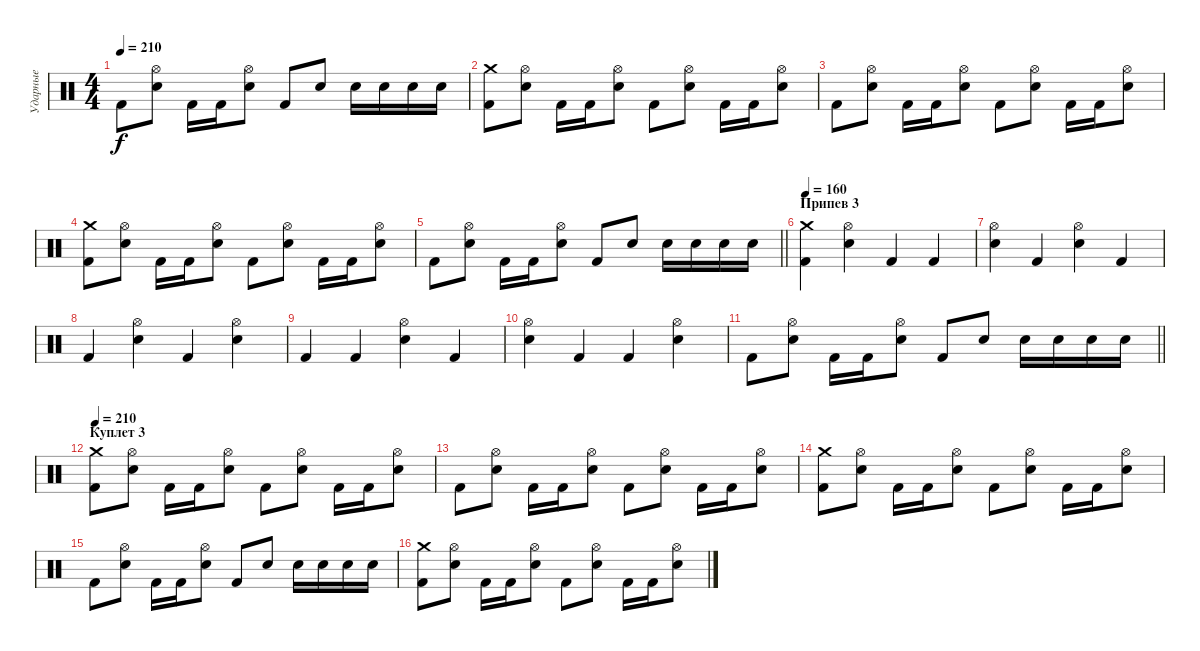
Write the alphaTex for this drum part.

\track ("Ударные" "Ударные") {instrument percussion}
\staff {score}
\articulation defaults
\ts (4 4)
\tempo 210
\clef neutral
\ks c "Kick (hit) 2".8{dy f}
("Electric Snare (hit)" "Hi-Hat (open)").8 "Kick (hit) 2".16 "Kick (hit) 2".16 ("Electric Snare (hit)" "Hi-Hat (open)").8 "Kick (hit) 2".8 "Electric Snare (hit)".8 "Electric Snare (hit)".16 "Electric Snare (hit)".16 "Electric Snare (hit)".16 "Electric Snare (hit)".16 |
("Kick (hit) 2" "Crash medium (hit)").8 ("Electric Snare (hit)" "Hi-Hat (open)").8 "Kick (hit) 2".16 "Kick (hit) 2".16 ("Electric Snare (hit)" "Hi-Hat (open)").8 "Kick (hit) 2".8 ("Electric Snare (hit)" "Hi-Hat (open)").8 "Kick (hit) 2".16 "Kick (hit) 2".16 ("Electric Snare (hit)" "Hi-Hat (open)").8 |
"Kick (hit) 2".8 ("Electric Snare (hit)" "Hi-Hat (open)").8 "Kick (hit) 2".16 "Kick (hit) 2".16 ("Electric Snare (hit)" "Hi-Hat (open)").8 "Kick (hit) 2".8 ("Electric Snare (hit)" "Hi-Hat (open)").8 "Kick (hit) 2".16 "Kick (hit) 2".16 ("Electric Snare (hit)" "Hi-Hat (open)").8 |
("Kick (hit) 2" "Crash medium (hit)").8 ("Electric Snare (hit)" "Hi-Hat (open)").8 "Kick (hit) 2".16 "Kick (hit) 2".16 ("Electric Snare (hit)" "Hi-Hat (open)").8 "Kick (hit) 2".8 ("Electric Snare (hit)" "Hi-Hat (open)").8 "Kick (hit) 2".16 "Kick (hit) 2".16 ("Electric Snare (hit)" "Hi-Hat (open)").8 |
\barLineRight lightlight "Kick (hit) 2".8
("Electric Snare (hit)" "Hi-Hat (open)").8 "Kick (hit) 2".16 "Kick (hit) 2".16 ("Electric Snare (hit)" "Hi-Hat (open)").8 "Kick (hit) 2".8 "Electric Snare (hit)".8 "Electric Snare (hit)".16 "Electric Snare (hit)".16 "Electric Snare (hit)".16 "Electric Snare (hit)".16 |
\section ("" "Припев 3")
\tempo 160
("Kick (hit) 2" "Crash medium (hit)").4 ("Electric Snare (hit)" "Hi-Hat (open)").4 "Kick (hit) 2".4 "Kick (hit) 2".4 |
("Electric Snare (hit)" "Hi-Hat (open)").4 "Kick (hit) 2".4 ("Electric Snare (hit)" "Hi-Hat (open)").4 "Kick (hit) 2".4 |
"Kick (hit) 2".4 ("Electric Snare (hit)" "Hi-Hat (open)").4 "Kick (hit) 2".4 ("Electric Snare (hit)" "Hi-Hat (open)").4 |
"Kick (hit) 2".4 "Kick (hit) 2".4 ("Electric Snare (hit)" "Hi-Hat (open)").4 "Kick (hit) 2".4 |
("Electric Snare (hit)" "Hi-Hat (open)").4 "Kick (hit) 2".4 "Kick (hit) 2".4 ("Electric Snare (hit)" "Hi-Hat (open)").4 |
\barLineRight lightlight "Kick (hit) 2".8
("Electric Snare (hit)" "Hi-Hat (open)").8 "Kick (hit) 2".16 "Kick (hit) 2".16 ("Electric Snare (hit)" "Hi-Hat (open)").8 "Kick (hit) 2".8 "Electric Snare (hit)".8 "Electric Snare (hit)".16 "Electric Snare (hit)".16 "Electric Snare (hit)".16 "Electric Snare (hit)".16 |
\section ("" "Куплет 3")
\tempo 210
("Kick (hit) 2" "Crash medium (hit)").8 ("Electric Snare (hit)" "Hi-Hat (open)").8 "Kick (hit) 2".16 "Kick (hit) 2".16 ("Electric Snare (hit)" "Hi-Hat (open)").8 "Kick (hit) 2".8 ("Electric Snare (hit)" "Hi-Hat (open)").8 "Kick (hit) 2".16 "Kick (hit) 2".16 ("Electric Snare (hit)" "Hi-Hat (open)").8 |
"Kick (hit) 2".8 ("Electric Snare (hit)" "Hi-Hat (open)").8 "Kick (hit) 2".16 "Kick (hit) 2".16 ("Electric Snare (hit)" "Hi-Hat (open)").8 "Kick (hit) 2".8 ("Electric Snare (hit)" "Hi-Hat (open)").8 "Kick (hit) 2".16 "Kick (hit) 2".16 ("Electric Snare (hit)" "Hi-Hat (open)").8 |
("Kick (hit) 2" "Crash medium (hit)").8 ("Electric Snare (hit)" "Hi-Hat (open)").8 "Kick (hit) 2".16 "Kick (hit) 2".16 ("Electric Snare (hit)" "Hi-Hat (open)").8 "Kick (hit) 2".8 ("Electric Snare (hit)" "Hi-Hat (open)").8 "Kick (hit) 2".16 "Kick (hit) 2".16 ("Electric Snare (hit)" "Hi-Hat (open)").8 |
"Kick (hit) 2".8 ("Electric Snare (hit)" "Hi-Hat (open)").8 "Kick (hit) 2".16 "Kick (hit) 2".16 ("Electric Snare (hit)" "Hi-Hat (open)").8 "Kick (hit) 2".8 "Electric Snare (hit)".8 "Electric Snare (hit)".16 "Electric Snare (hit)".16 "Electric Snare (hit)".16 "Electric Snare (hit)".16 |
("Kick (hit) 2" "Crash medium (hit)").8 ("Electric Snare (hit)" "Hi-Hat (open)").8 "Kick (hit) 2".16 "Kick (hit) 2".16 ("Electric Snare (hit)" "Hi-Hat (open)").8 "Kick (hit) 2".8 ("Electric Snare (hit)" "Hi-Hat (open)").8 "Kick (hit) 2".16 "Kick (hit) 2".16 ("Electric Snare (hit)" "Hi-Hat (open)").8
